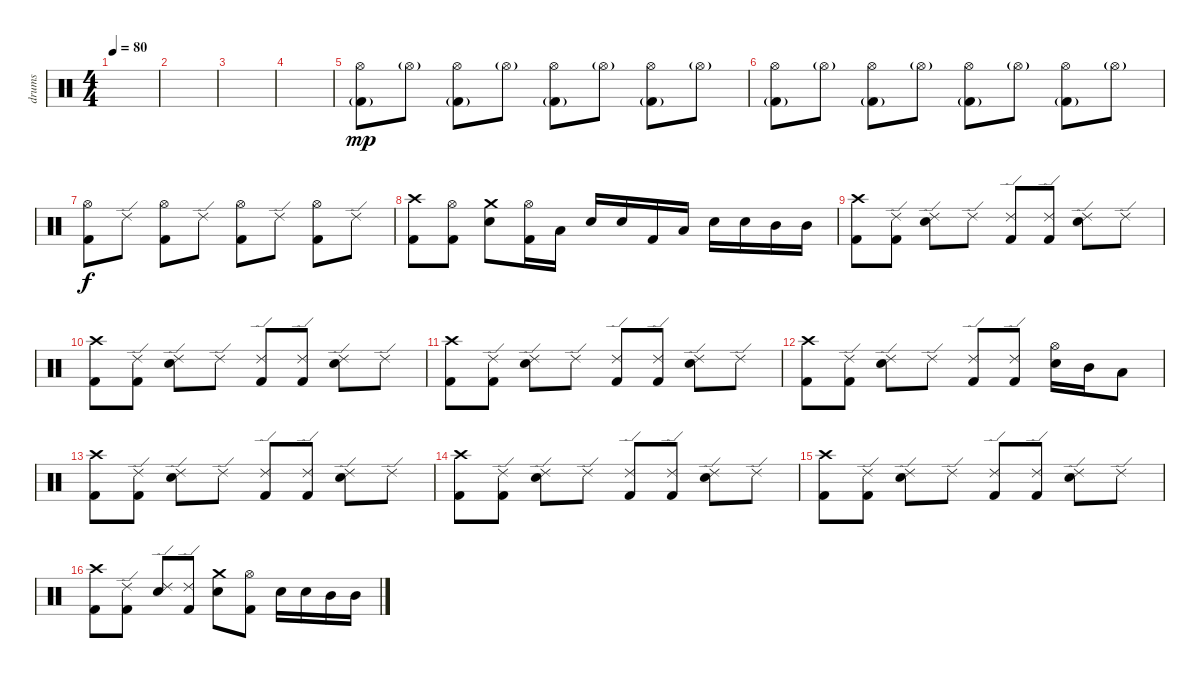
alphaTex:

\track ("drums" "drums") {instrument percussion}
\staff
\articulation defaults
\ts (4 4)
\tempo 80
\clef neutral
\ks c
|
|
|
|
("Hi-Hat (open)" "Kick (hit) 2"{g}).8{dy mp} "Hi-Hat (open)"{g}.8 ("Hi-Hat (open)" "Kick (hit) 2"{g}).8 "Hi-Hat (open)"{g}.8 ("Hi-Hat (open)" "Kick (hit) 2"{g}).8 "Hi-Hat (open)"{g}.8 ("Hi-Hat (open)" "Kick (hit) 2"{g}).8 "Hi-Hat (open)"{g}.8 |
("Hi-Hat (open)" "Kick (hit) 2"{g}).8 "Hi-Hat (open)"{g}.8 ("Hi-Hat (open)" "Kick (hit) 2"{g}).8 "Hi-Hat (open)"{g}.8 ("Hi-Hat (open)" "Kick (hit) 2"{g}).8 "Hi-Hat (open)"{g}.8 ("Hi-Hat (open)" "Kick (hit) 2"{g}).8 "Hi-Hat (open)"{g}.8 |
("Hi-Hat (open)" "Kick (hit) 2").8{dy f} "Ride (edge) 2".8 ("Hi-Hat (open)" "Kick (hit) 2").8 "Ride (edge) 2".8 ("Hi-Hat (open)" "Kick (hit) 2").8 "Ride (edge) 2".8 ("Hi-Hat (open)" "Kick (hit) 2").8 "Ride (edge) 2".8 |
("Crash high (hit)" "Kick (hit) 2").8 ("Hi-Hat (open)" "Kick (hit) 2").8 ("Crash medium (hit)" "Electric Snare (hit)").8 ("Hi-Hat (open)" "Kick (hit) 2").16 "Low Tom (hit)".16 "Electric Snare (hit)".16 "Electric Snare (hit)".16 "Kick (hit) 2".16 "Low Tom (hit)".16 "Electric Snare (hit)".16 "Electric Snare (hit)".16 "Mid Tom (hit)".16 "Mid Tom (hit)".16 |
("Crash high (hit)" "Kick (hit) 2").8 ("Ride (edge) 2" "Kick (hit) 2").8 ("Ride (edge) 2" "Electric Snare (hit)").8 "Ride (edge) 2".8 ("Ride (edge) 2" "Kick (hit) 2").8 ("Ride (edge) 2" "Kick (hit) 2").8 ("Ride (edge) 2" "Electric Snare (hit)").8 "Ride (edge) 2".8 |
("Crash high (hit)" "Kick (hit) 2").8 ("Ride (edge) 2" "Kick (hit) 2").8 ("Ride (edge) 2" "Electric Snare (hit)").8 "Ride (edge) 2".8 ("Ride (edge) 2" "Kick (hit) 2").8 ("Ride (edge) 2" "Kick (hit) 2").8 ("Ride (edge) 2" "Electric Snare (hit)").8 "Ride (edge) 2".8 |
("Crash high (hit)" "Kick (hit) 2").8 ("Ride (edge) 2" "Kick (hit) 2").8 ("Ride (edge) 2" "Electric Snare (hit)").8 "Ride (edge) 2".8 ("Ride (edge) 2" "Kick (hit) 2").8 ("Ride (edge) 2" "Kick (hit) 2").8 ("Ride (edge) 2" "Electric Snare (hit)").8 "Ride (edge) 2".8 |
("Crash high (hit)" "Kick (hit) 2").8 ("Ride (edge) 2" "Kick (hit) 2").8 ("Ride (edge) 2" "Electric Snare (hit)").8 "Ride (edge) 2".8 ("Ride (edge) 2" "Kick (hit) 2").8 ("Ride (edge) 2" "Kick (hit) 2").8 ("Hi-Hat (open)" "Electric Snare (hit)").16 "Mid Tom (hit)".16 "Low Tom (hit)".8 |
("Crash high (hit)" "Kick (hit) 2").8 ("Ride (edge) 2" "Kick (hit) 2").8 ("Ride (edge) 2" "Electric Snare (hit)").8 "Ride (edge) 2".8 ("Ride (edge) 2" "Kick (hit) 2").8 ("Ride (edge) 2" "Kick (hit) 2").8 ("Ride (edge) 2" "Electric Snare (hit)").8 "Ride (edge) 2".8 |
("Crash high (hit)" "Kick (hit) 2").8 ("Ride (edge) 2" "Kick (hit) 2").8 ("Ride (edge) 2" "Electric Snare (hit)").8 "Ride (edge) 2".8 ("Ride (edge) 2" "Kick (hit) 2").8 ("Ride (edge) 2" "Kick (hit) 2").8 ("Ride (edge) 2" "Electric Snare (hit)").8 "Ride (edge) 2".8 |
("Crash high (hit)" "Kick (hit) 2").8 ("Ride (edge) 2" "Kick (hit) 2").8 ("Ride (edge) 2" "Electric Snare (hit)").8 "Ride (edge) 2".8 ("Ride (edge) 2" "Kick (hit) 2").8 ("Ride (edge) 2" "Kick (hit) 2").8 ("Ride (edge) 2" "Electric Snare (hit)").8 "Ride (edge) 2".8 |
("Crash high (hit)" "Kick (hit) 2").8 ("Ride (edge) 2" "Kick (hit) 2").8 ("Ride (edge) 2" "Electric Snare (hit)").8 ("Ride (edge) 2" "Kick (hit) 2").8 ("Crash medium (hit)" "Electric Snare (hit)").8 ("Hi-Hat (open)" "Kick (hit) 2").8 "Electric Snare (hit)".16 "Electric Snare (hit)".16 "Mid Tom (hit)".16 "Mid Tom (hit)".16
